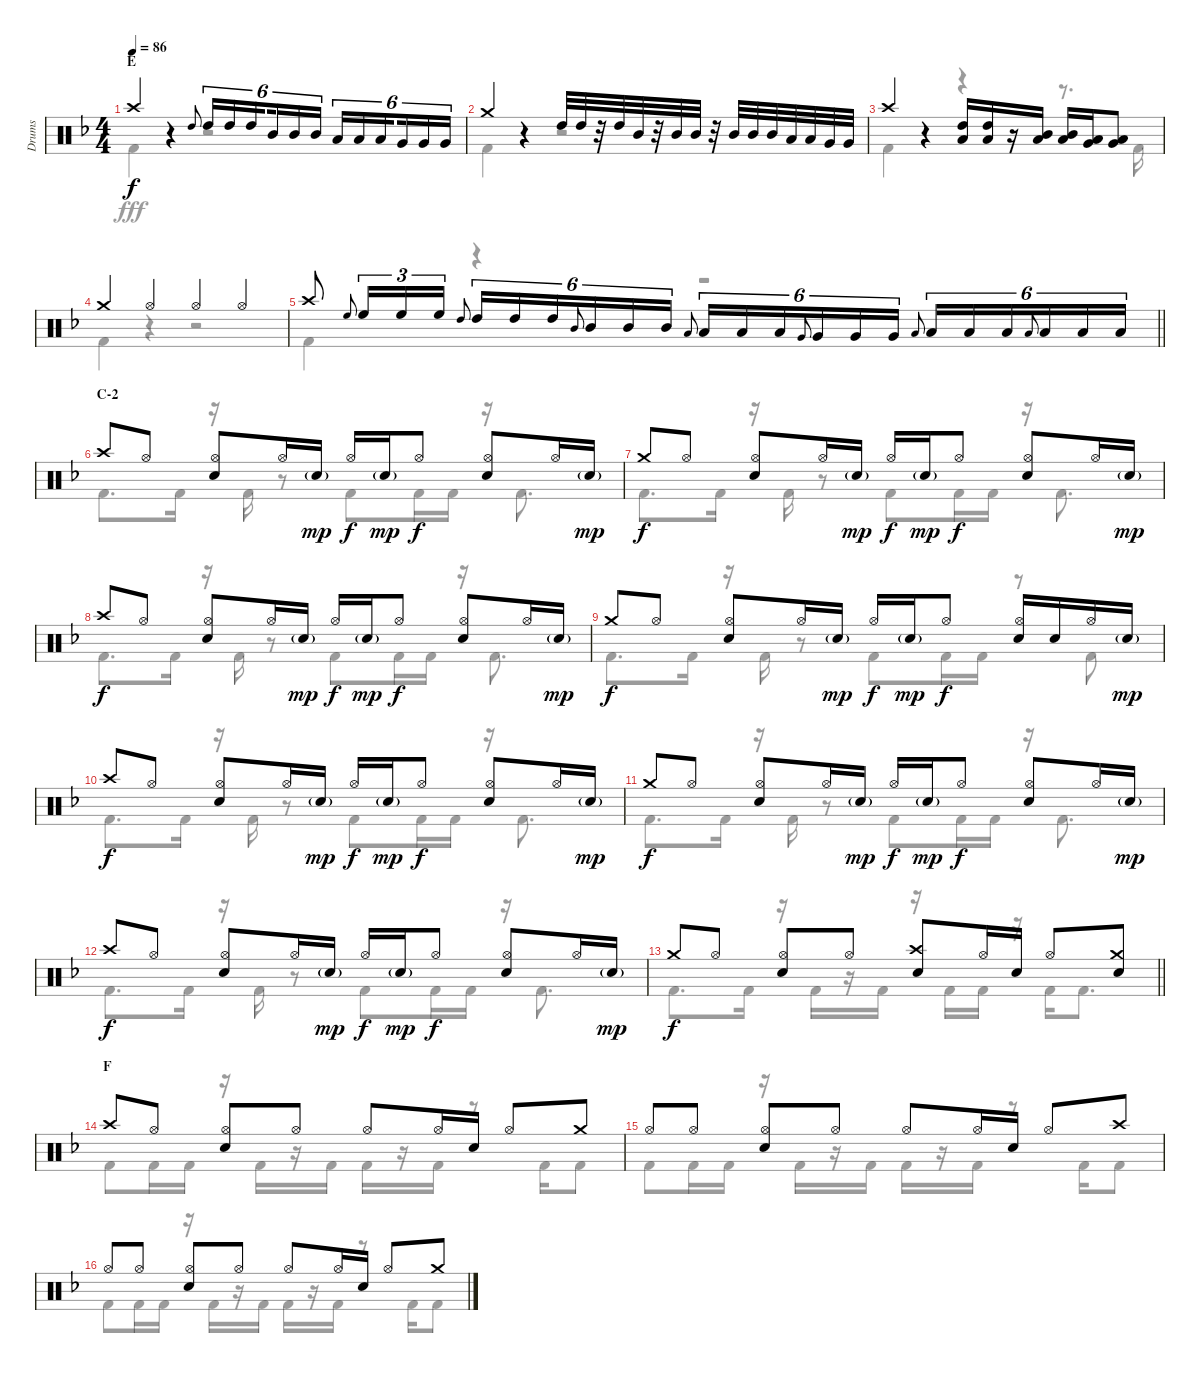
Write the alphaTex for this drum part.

\track ("Drums" "Drums") {instrument percussion}
\staff {score}
\articulation defaults
\voice
\ts (4 4)
\section ("" "E")
\tempo 86
\clef neutral
\ks f "Crash high (hit)".4{dy f}
r.4 "High Tom (hit)".8{gr onbeat} "High Tom (hit)".16{tu (6 4)} "High Tom (hit)".16{tu (6 4)} "High Tom (hit)".16{tu (6 4) beam splitsecondary} "Mid Tom (hit)".16{tu (6 4)} "Mid Tom (hit)".16{tu (6 4)} "Mid Tom (hit)".16{tu (6 4)} "Low Tom (hit)".16{tu (6 4)} "Low Tom (hit)".16{tu (6 4)} "Low Tom (hit)".16{tu (6 4) beam splitsecondary} "Very Low Tom (hit)".16{tu (6 4)} "Very Low Tom (hit)".16{tu (6 4)} "Very Low Tom (hit)".16{tu (6 4)} |
"Crash medium (hit)".4 r.4 "High Tom (hit)".32 "High Tom (hit)".32 r.32 "High Tom (hit)".32 "Mid Tom (hit)".32 r.32 "Mid Tom (hit)".32 "Mid Tom (hit)".32 r.32 "Mid Tom (hit)".32 "Mid Tom (hit)".32 "Mid Tom (hit)".32 "Low Tom (hit)".32 "Low Tom (hit)".32 "Very Low Tom (hit)".32 "Very Low Tom (hit)".32 |
"Crash high (hit)".4 r.4 ("High Tom (hit)" "Low Tom (hit)").16 ("High Tom (hit)" "Low Tom (hit)").16 r.16 ("Mid Tom (hit)" "Low Tom (hit)").16 ("Mid Tom (hit)" "Low Tom (hit)").16 ("Low Tom (hit)" "Very Low Tom (hit)").16 ("Low Tom (hit)" "Very Low Tom (hit)").8 |
"Crash medium (hit)".4 "Hi-Hat (open)".4 "Hi-Hat (open)".4 "Hi-Hat (open)".4 |
\barLineRight lightlight "Crash high (hit)".8 "High Floor Tom (hit)".8{gr onbeat} "High Floor Tom (hit)".16{tu (3 2)} "High Floor Tom (hit)".16{tu (3 2)} "High Floor Tom (hit)".16{tu (3 2)} "High Tom (hit)".8{gr onbeat} "High Tom (hit)".16{tu (6 4)} "High Tom (hit)".16{tu (6 4)} "High Tom (hit)".16{tu (6 4)} "Mid Tom (hit)".8{gr onbeat beam splitsecondary} "Mid Tom (hit)".16{tu (6 4)} "Mid Tom (hit)".16{tu (6 4)} "Mid Tom (hit)".16{tu (6 4)} "Low Tom (hit)".8{gr onbeat} "Low Tom (hit)".16{tu (6 4)} "Low Tom (hit)".16{tu (6 4)} "Low Tom (hit)".16{tu (6 4)} "Very Low Tom (hit)".8{gr onbeat beam splitsecondary} "Very Low Tom (hit)".16{tu (6 4)} "Very Low Tom (hit)".16{tu (6 4)} "Very Low Tom (hit)".16{tu (6 4)} "Low Floor Tom (hit)".8{gr onbeat} "Low Floor Tom (hit)".16{tu (6 4)} "Low Floor Tom (hit)".16{tu (6 4)} "Low Floor Tom (hit)".16{tu (6 4)} "Low Floor Tom (hit)".8{gr onbeat beam splitsecondary} "Low Floor Tom (hit)".16{tu (6 4)} "Low Floor Tom (hit)".16{tu (6 4)} "Low Floor Tom (hit)".16{tu (6 4)}
|
\section ("" "C-2")
"Crash high (hit)".8 "Hi-Hat (open)".8 ("Hi-Hat (open)" "Snare (hit) 2").8 "Hi-Hat (open)".16 "Snare (hit) 2"{g}.16{dy mp} "Hi-Hat (open)".16{dy f} "Snare (hit) 2"{g}.16{dy mp} "Hi-Hat (open)".8{dy f} ("Hi-Hat (open)" "Snare (hit) 2").8 "Hi-Hat (open)".16 "Snare (hit) 2"{g}.16{dy mp} |
"Crash medium (hit)".8{dy f} "Hi-Hat (open)".8 ("Hi-Hat (open)" "Snare (hit) 2").8 "Hi-Hat (open)".16 "Snare (hit) 2"{g}.16{dy mp} "Hi-Hat (open)".16{dy f} "Snare (hit) 2"{g}.16{dy mp} "Hi-Hat (open)".8{dy f} ("Hi-Hat (open)" "Snare (hit) 2").8 "Hi-Hat (open)".16 "Snare (hit) 2"{g}.16{dy mp} |
"Crash high (hit)".8{dy f} "Hi-Hat (open)".8 ("Hi-Hat (open)" "Snare (hit) 2").8 "Hi-Hat (open)".16 "Snare (hit) 2"{g}.16{dy mp} "Hi-Hat (open)".16{dy f} "Snare (hit) 2"{g}.16{dy mp} "Hi-Hat (open)".8{dy f} ("Hi-Hat (open)" "Snare (hit) 2").8 "Hi-Hat (open)".16 "Snare (hit) 2"{g}.16{dy mp} |
"Crash medium (hit)".8{dy f} "Hi-Hat (open)".8 ("Hi-Hat (open)" "Snare (hit) 2").8 "Hi-Hat (open)".16 "Snare (hit) 2"{g}.16{dy mp} "Hi-Hat (open)".16{dy f} "Snare (hit) 2"{g}.16{dy mp} "Hi-Hat (open)".8{dy f} ("Hi-Hat (open)" "Snare (hit) 2").16 "Snare (hit) 2".16 "Hi-Hat (open)".16 "Snare (hit) 2"{g}.16{dy mp} |
"Crash high (hit)".8{dy f} "Hi-Hat (open)".8 ("Hi-Hat (open)" "Snare (hit) 2").8 "Hi-Hat (open)".16 "Snare (hit) 2"{g}.16{dy mp} "Hi-Hat (open)".16{dy f} "Snare (hit) 2"{g}.16{dy mp} "Hi-Hat (open)".8{dy f} ("Hi-Hat (open)" "Snare (hit) 2").8 "Hi-Hat (open)".16 "Snare (hit) 2"{g}.16{dy mp} |
"Crash medium (hit)".8{dy f} "Hi-Hat (open)".8 ("Hi-Hat (open)" "Snare (hit) 2").8 "Hi-Hat (open)".16 "Snare (hit) 2"{g}.16{dy mp} "Hi-Hat (open)".16{dy f} "Snare (hit) 2"{g}.16{dy mp} "Hi-Hat (open)".8{dy f} ("Hi-Hat (open)" "Snare (hit) 2").8 "Hi-Hat (open)".16 "Snare (hit) 2"{g}.16{dy mp} |
"Crash high (hit)".8{dy f} "Hi-Hat (open)".8 ("Hi-Hat (open)" "Snare (hit) 2").8 "Hi-Hat (open)".16 "Snare (hit) 2"{g}.16{dy mp} "Hi-Hat (open)".16{dy f} "Snare (hit) 2"{g}.16{dy mp} "Hi-Hat (open)".8{dy f} ("Hi-Hat (open)" "Snare (hit) 2").8 "Hi-Hat (open)".16 "Snare (hit) 2"{g}.16{dy mp} |
\barLineRight lightlight "Crash medium (hit)".8{dy f} "Hi-Hat (open)".8
("Hi-Hat (open)" "Snare (hit) 2").8 "Hi-Hat (open)".8 ("Crash high (hit)" "Snare (hit) 2").8 "Hi-Hat (open)".16 "Snare (hit) 2".16 "Hi-Hat (open)".8 ("Crash medium (hit)" "Snare (hit) 2").8 |
\section ("" "F")
"Crash high (hit)".8 "Hi-Hat (open)".8 ("Hi-Hat (open)" "Snare (hit) 2").8 "Hi-Hat (open)".8 "Hi-Hat (open)".8 "Hi-Hat (open)".16 "Snare (hit) 2".16 "Hi-Hat (open)".8 "Crash medium (hit)".8 |
"Hi-Hat (open)".8 "Hi-Hat (open)".8 ("Hi-Hat (open)" "Snare (hit) 2").8 "Hi-Hat (open)".8 "Hi-Hat (open)".8 "Hi-Hat (open)".16 "Snare (hit) 2".16 "Hi-Hat (open)".8 "Crash high (hit)".8 |
"Hi-Hat (open)".8 "Hi-Hat (open)".8 ("Hi-Hat (open)" "Snare (hit) 2").8 "Hi-Hat (open)".8 "Hi-Hat (open)".8 "Hi-Hat (open)".16 "Snare (hit) 2".16 "Hi-Hat (open)".8 "Crash medium (hit)".8
\voice
\clef neutral
\ottava regular
\simile none
\ks f "Kick (hit) 2".4{dy fff}
r.4 r.2 |
"Kick (hit) 2".4 r.4 r.2 |
"Kick (hit) 2".4 r.4 r.4 r.8{d} "Kick (hit) 2".16 |
"Kick (hit) 2".4 r.4 r.2 |
\barLineRight lightlight "Kick (hit) 2".4
r.4 r.2 |
"Kick (hit) 2".8{d} "Kick (hit) 2".16 r.16 "Kick (hit) 2".16 r.8 "Kick (hit) 2".8 "Kick (hit) 2".16 "Kick (hit) 2".16 r.16 "Kick (hit) 2".8{d} |
"Kick (hit) 2".8{d} "Kick (hit) 2".16 r.16 "Kick (hit) 2".16 r.8 "Kick (hit) 2".8 "Kick (hit) 2".16 "Kick (hit) 2".16 r.16 "Kick (hit) 2".8{d} |
"Kick (hit) 2".8{d} "Kick (hit) 2".16 r.16 "Kick (hit) 2".16 r.8 "Kick (hit) 2".8 "Kick (hit) 2".16 "Kick (hit) 2".16 r.16 "Kick (hit) 2".8{d} |
"Kick (hit) 2".8{d} "Kick (hit) 2".16 r.16 "Kick (hit) 2".16 r.8 "Kick (hit) 2".8 "Kick (hit) 2".16 "Kick (hit) 2".16 r.8 "Kick (hit) 2".8 |
"Kick (hit) 2".8{d} "Kick (hit) 2".16 r.16 "Kick (hit) 2".16 r.8 "Kick (hit) 2".8 "Kick (hit) 2".16 "Kick (hit) 2".16 r.16 "Kick (hit) 2".8{d} |
"Kick (hit) 2".8{d} "Kick (hit) 2".16 r.16 "Kick (hit) 2".16 r.8 "Kick (hit) 2".8 "Kick (hit) 2".16 "Kick (hit) 2".16 r.16 "Kick (hit) 2".8{d} |
"Kick (hit) 2".8{d} "Kick (hit) 2".16 r.16 "Kick (hit) 2".16 r.8 "Kick (hit) 2".8 "Kick (hit) 2".16 "Kick (hit) 2".16 r.16 "Kick (hit) 2".8{d} |
\barLineRight lightlight "Kick (hit) 2".8{d} "Kick (hit) 2".16
r.16 "Kick (hit) 2".16 r.16 "Kick (hit) 2".16 r.16 "Kick (hit) 2".16 "Kick (hit) 2".16 r.16 "Kick (hit) 2".16 "Kick (hit) 2".8{d} |
"Kick (hit) 2".8 "Kick (hit) 2".16 "Kick (hit) 2".16 r.16 "Kick (hit) 2".16 r.16 "Kick (hit) 2".16 "Kick (hit) 2".16 r.16 "Kick (hit) 2".16 r.8 "Kick (hit) 2".16 "Kick (hit) 2".8 |
"Kick (hit) 2".8 "Kick (hit) 2".16 "Kick (hit) 2".16 r.16 "Kick (hit) 2".16 r.16 "Kick (hit) 2".16 "Kick (hit) 2".16 r.16 "Kick (hit) 2".16 r.8 "Kick (hit) 2".16 "Kick (hit) 2".8 |
"Kick (hit) 2".8 "Kick (hit) 2".16 "Kick (hit) 2".16 r.16 "Kick (hit) 2".16 r.16 "Kick (hit) 2".16 "Kick (hit) 2".16 r.16 "Kick (hit) 2".16 r.8 "Kick (hit) 2".16 "Kick (hit) 2".8
